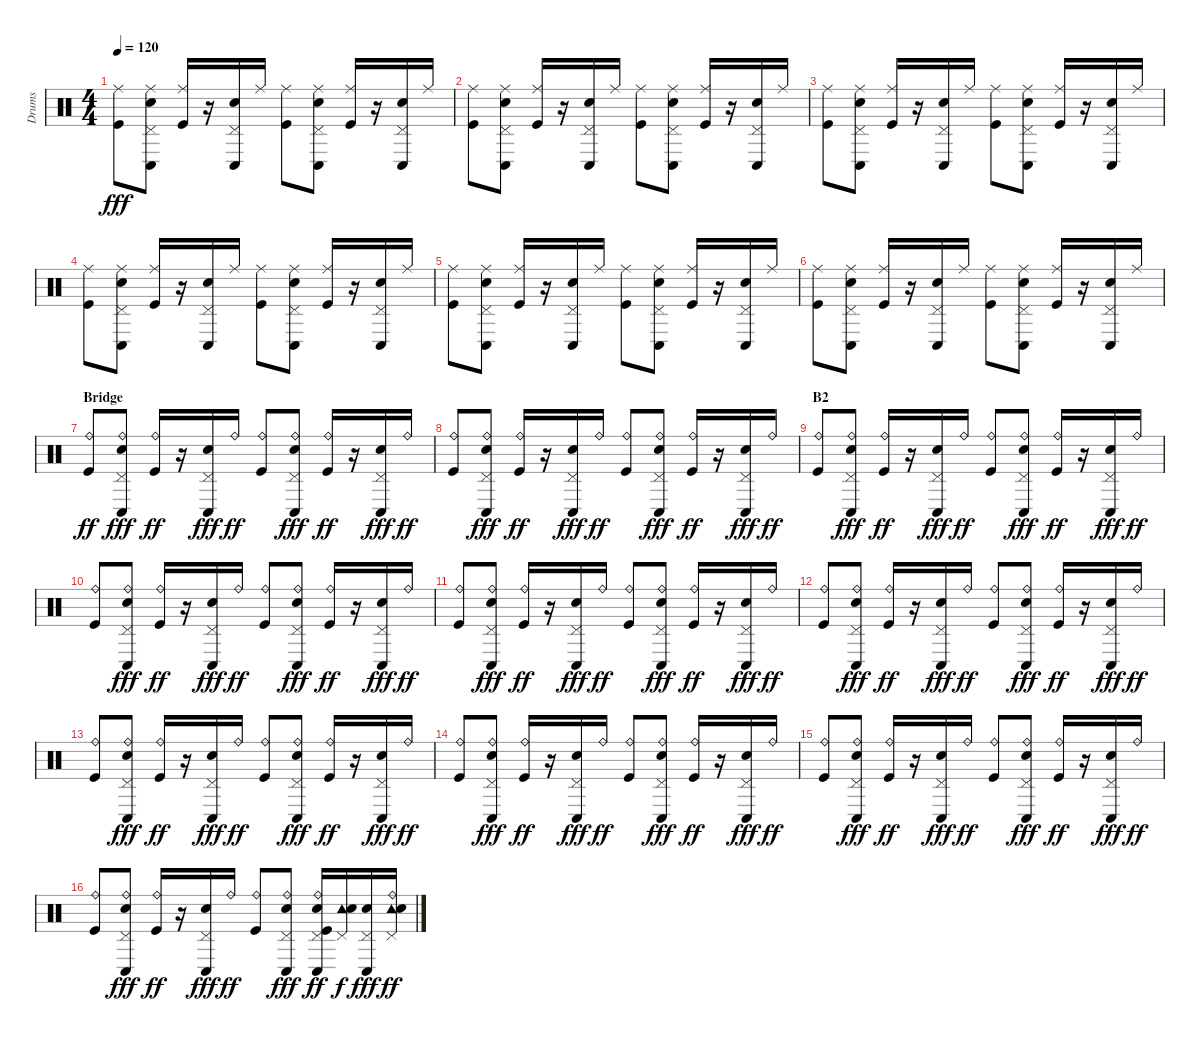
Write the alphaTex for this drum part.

\track ("Drums" "Drums") {instrument percussion}
\staff {score}
\articulation defaults
\ts (4 4)
\tempo 120
\clef neutral
\ks c
("Ride (middle)" "Kick (hit)").8{dy fff} ("Ride (middle)" "Pedal Hi-Hat (hit)" "Conga low (hit)" "Electric Snare (hit)").8 ("Ride (middle)" "Kick (hit)").16 r.16 ("Pedal Hi-Hat (hit)" "Conga low (hit)" "Electric Snare (hit)").16 "Ride (middle)".16 ("Ride (middle)" "Kick (hit)").8 ("Ride (middle)" "Pedal Hi-Hat (hit)" "Conga low (hit)" "Electric Snare (hit)").8 ("Ride (middle)" "Kick (hit)").16 r.16 ("Pedal Hi-Hat (hit)" "Conga low (hit)" "Electric Snare (hit)").16 "Ride (middle)".16 |
("Ride (middle)" "Kick (hit)").8 ("Ride (middle)" "Pedal Hi-Hat (hit)" "Conga low (hit)" "Electric Snare (hit)").8 ("Ride (middle)" "Kick (hit)").16 r.16 ("Pedal Hi-Hat (hit)" "Conga low (hit)" "Electric Snare (hit)").16 "Ride (middle)".16 ("Ride (middle)" "Kick (hit)").8 ("Ride (middle)" "Pedal Hi-Hat (hit)" "Conga low (hit)" "Electric Snare (hit)").8 ("Ride (middle)" "Kick (hit)").16 r.16 ("Pedal Hi-Hat (hit)" "Conga low (hit)" "Electric Snare (hit)").16 "Ride (middle)".16 |
("Ride (middle)" "Kick (hit)").8 ("Ride (middle)" "Pedal Hi-Hat (hit)" "Conga low (hit)" "Electric Snare (hit)").8 ("Ride (middle)" "Kick (hit)").16 r.16 ("Pedal Hi-Hat (hit)" "Conga low (hit)" "Electric Snare (hit)").16 "Ride (middle)".16 ("Ride (middle)" "Kick (hit)").8 ("Ride (middle)" "Pedal Hi-Hat (hit)" "Conga low (hit)" "Electric Snare (hit)").8 ("Ride (middle)" "Kick (hit)").16 r.16 ("Pedal Hi-Hat (hit)" "Conga low (hit)" "Electric Snare (hit)").16 "Ride (middle)".16 |
("Ride (middle)" "Kick (hit)").8 ("Ride (middle)" "Pedal Hi-Hat (hit)" "Conga low (hit)" "Electric Snare (hit)").8 ("Ride (middle)" "Kick (hit)").16 r.16 ("Pedal Hi-Hat (hit)" "Conga low (hit)" "Electric Snare (hit)").16 "Ride (middle)".16 ("Ride (middle)" "Kick (hit)").8 ("Ride (middle)" "Pedal Hi-Hat (hit)" "Conga low (hit)" "Electric Snare (hit)").8 ("Ride (middle)" "Kick (hit)").16 r.16 ("Pedal Hi-Hat (hit)" "Conga low (hit)" "Electric Snare (hit)").16 "Ride (middle)".16 |
("Ride (middle)" "Kick (hit)").8 ("Ride (middle)" "Pedal Hi-Hat (hit)" "Conga low (hit)" "Electric Snare (hit)").8 ("Ride (middle)" "Kick (hit)").16 r.16 ("Pedal Hi-Hat (hit)" "Conga low (hit)" "Electric Snare (hit)").16 "Ride (middle)".16 ("Ride (middle)" "Kick (hit)").8 ("Ride (middle)" "Pedal Hi-Hat (hit)" "Conga low (hit)" "Electric Snare (hit)").8 ("Ride (middle)" "Kick (hit)").16 r.16 ("Pedal Hi-Hat (hit)" "Conga low (hit)" "Electric Snare (hit)").16 "Ride (middle)".16 |
("Ride (middle)" "Kick (hit)").8 ("Ride (middle)" "Pedal Hi-Hat (hit)" "Conga low (hit)" "Electric Snare (hit)").8 ("Ride (middle)" "Kick (hit)").16 r.16 ("Pedal Hi-Hat (hit)" "Conga low (hit)" "Electric Snare (hit)").16 "Ride (middle)".16 ("Ride (middle)" "Kick (hit)").8 ("Ride (middle)" "Pedal Hi-Hat (hit)" "Conga low (hit)" "Electric Snare (hit)").8 ("Ride (middle)" "Kick (hit)").16 r.16 ("Pedal Hi-Hat (hit)" "Conga low (hit)" "Electric Snare (hit)").16 "Ride (middle)".16 |
\section ("" "Bridge")
("Ride (bell)" "Kick (hit)").8{dy ff} ("Ride (bell)" "Pedal Hi-Hat (hit)" "Conga low (hit)" "Electric Snare (hit)").8{dy fff} ("Ride (bell)" "Kick (hit)").16{dy ff} r.16 ("Pedal Hi-Hat (hit)" "Conga low (hit)" "Electric Snare (hit)").16{dy fff} "Ride (bell)".16{dy ff} ("Ride (bell)" "Kick (hit)").8 ("Ride (bell)" "Pedal Hi-Hat (hit)" "Conga low (hit)" "Electric Snare (hit)").8{dy fff} ("Ride (bell)" "Kick (hit)").16{dy ff} r.16 ("Pedal Hi-Hat (hit)" "Conga low (hit)" "Electric Snare (hit)").16{dy fff} "Ride (bell)".16{dy ff} |
("Ride (bell)" "Kick (hit)").8 ("Ride (bell)" "Pedal Hi-Hat (hit)" "Conga low (hit)" "Electric Snare (hit)").8{dy fff} ("Ride (bell)" "Kick (hit)").16{dy ff} r.16 ("Pedal Hi-Hat (hit)" "Conga low (hit)" "Electric Snare (hit)").16{dy fff} "Ride (bell)".16{dy ff} ("Ride (bell)" "Kick (hit)").8 ("Ride (bell)" "Pedal Hi-Hat (hit)" "Conga low (hit)" "Electric Snare (hit)").8{dy fff} ("Ride (bell)" "Kick (hit)").16{dy ff} r.16 ("Pedal Hi-Hat (hit)" "Conga low (hit)" "Electric Snare (hit)").16{dy fff} "Ride (bell)".16{dy ff} |
\section ("" "B2")
("Ride (bell)" "Kick (hit)").8 ("Ride (bell)" "Pedal Hi-Hat (hit)" "Conga low (hit)" "Electric Snare (hit)").8{dy fff} ("Ride (bell)" "Kick (hit)").16{dy ff} r.16 ("Pedal Hi-Hat (hit)" "Conga low (hit)" "Electric Snare (hit)").16{dy fff} "Ride (bell)".16{dy ff} ("Ride (bell)" "Kick (hit)").8 ("Ride (bell)" "Pedal Hi-Hat (hit)" "Conga low (hit)" "Electric Snare (hit)").8{dy fff} ("Ride (bell)" "Kick (hit)").16{dy ff} r.16 ("Pedal Hi-Hat (hit)" "Conga low (hit)" "Electric Snare (hit)").16{dy fff} "Ride (bell)".16{dy ff} |
("Ride (bell)" "Kick (hit)").8 ("Ride (bell)" "Pedal Hi-Hat (hit)" "Conga low (hit)" "Electric Snare (hit)").8{dy fff} ("Ride (bell)" "Kick (hit)").16{dy ff} r.16 ("Pedal Hi-Hat (hit)" "Conga low (hit)" "Electric Snare (hit)").16{dy fff} "Ride (bell)".16{dy ff} ("Ride (bell)" "Kick (hit)").8 ("Ride (bell)" "Pedal Hi-Hat (hit)" "Conga low (hit)" "Electric Snare (hit)").8{dy fff} ("Ride (bell)" "Kick (hit)").16{dy ff} r.16 ("Pedal Hi-Hat (hit)" "Conga low (hit)" "Electric Snare (hit)").16{dy fff} "Ride (bell)".16{dy ff} |
("Ride (bell)" "Kick (hit)").8 ("Ride (bell)" "Pedal Hi-Hat (hit)" "Conga low (hit)" "Electric Snare (hit)").8{dy fff} ("Ride (bell)" "Kick (hit)").16{dy ff} r.16 ("Pedal Hi-Hat (hit)" "Conga low (hit)" "Electric Snare (hit)").16{dy fff} "Ride (bell)".16{dy ff} ("Ride (bell)" "Kick (hit)").8 ("Ride (bell)" "Pedal Hi-Hat (hit)" "Conga low (hit)" "Electric Snare (hit)").8{dy fff} ("Ride (bell)" "Kick (hit)").16{dy ff} r.16 ("Pedal Hi-Hat (hit)" "Conga low (hit)" "Electric Snare (hit)").16{dy fff} "Ride (bell)".16{dy ff} |
("Ride (bell)" "Kick (hit)").8 ("Ride (bell)" "Pedal Hi-Hat (hit)" "Conga low (hit)" "Electric Snare (hit)").8{dy fff} ("Ride (bell)" "Kick (hit)").16{dy ff} r.16 ("Pedal Hi-Hat (hit)" "Conga low (hit)" "Electric Snare (hit)").16{dy fff} "Ride (bell)".16{dy ff} ("Ride (bell)" "Kick (hit)").8 ("Ride (bell)" "Pedal Hi-Hat (hit)" "Conga low (hit)" "Electric Snare (hit)").8{dy fff} ("Ride (bell)" "Kick (hit)").16{dy ff} r.16 ("Pedal Hi-Hat (hit)" "Conga low (hit)" "Electric Snare (hit)").16{dy fff} "Ride (bell)".16{dy ff} |
("Ride (bell)" "Kick (hit)").8 ("Ride (bell)" "Pedal Hi-Hat (hit)" "Conga low (hit)" "Electric Snare (hit)").8{dy fff} ("Ride (bell)" "Kick (hit)").16{dy ff} r.16 ("Pedal Hi-Hat (hit)" "Conga low (hit)" "Electric Snare (hit)").16{dy fff} "Ride (bell)".16{dy ff} ("Ride (bell)" "Kick (hit)").8 ("Ride (bell)" "Pedal Hi-Hat (hit)" "Conga low (hit)" "Electric Snare (hit)").8{dy fff} ("Ride (bell)" "Kick (hit)").16{dy ff} r.16 ("Pedal Hi-Hat (hit)" "Conga low (hit)" "Electric Snare (hit)").16{dy fff} "Ride (bell)".16{dy ff} |
("Ride (bell)" "Kick (hit)").8 ("Ride (bell)" "Pedal Hi-Hat (hit)" "Conga low (hit)" "Electric Snare (hit)").8{dy fff} ("Ride (bell)" "Kick (hit)").16{dy ff} r.16 ("Pedal Hi-Hat (hit)" "Conga low (hit)" "Electric Snare (hit)").16{dy fff} "Ride (bell)".16{dy ff} ("Ride (bell)" "Kick (hit)").8 ("Ride (bell)" "Pedal Hi-Hat (hit)" "Conga low (hit)" "Electric Snare (hit)").8{dy fff} ("Ride (bell)" "Kick (hit)").16{dy ff} r.16 ("Pedal Hi-Hat (hit)" "Conga low (hit)" "Electric Snare (hit)").16{dy fff} "Ride (bell)".16{dy ff} |
("Ride (bell)" "Kick (hit)").8 ("Ride (bell)" "Pedal Hi-Hat (hit)" "Conga low (hit)" "Electric Snare (hit)").8{dy fff} ("Ride (bell)" "Kick (hit)").16{dy ff} r.16 ("Pedal Hi-Hat (hit)" "Conga low (hit)" "Electric Snare (hit)").16{dy fff} "Ride (bell)".16{dy ff} ("Ride (bell)" "Kick (hit)").8 ("Ride (bell)" "Pedal Hi-Hat (hit)" "Conga low (hit)" "Electric Snare (hit)").8{dy fff} ("Ride (bell)" "Kick (hit)").16{dy ff} r.16 ("Pedal Hi-Hat (hit)" "Conga low (hit)" "Electric Snare (hit)").16{dy fff} "Ride (bell)".16{dy ff} |
("Ride (bell)" "Kick (hit)").8 ("Ride (bell)" "Pedal Hi-Hat (hit)" "Conga low (hit)" "Electric Snare (hit)").8{dy fff} ("Ride (bell)" "Kick (hit)").16{dy ff} r.16 ("Pedal Hi-Hat (hit)" "Conga low (hit)" "Electric Snare (hit)").16{dy fff} "Ride (bell)".16{dy ff} ("Ride (bell)" "Kick (hit)").8 ("Ride (bell)" "Pedal Hi-Hat (hit)" "Conga low (hit)" "Electric Snare (hit)").8{dy fff} ("Ride (bell)" "Pedal Hi-Hat (hit)" "Conga low (hit)" "Electric Snare (hit)" "Kick (hit)").16{dy ff} ("Pedal Hi-Hat (hit)" "Tambourine (hit)" "Electric Snare (hit)").16{dy f} ("Pedal Hi-Hat (hit)" "Conga low (hit)" "Electric Snare (hit)").16{dy fff} ("Ride (bell)" "Pedal Hi-Hat (hit)" "Tambourine (hit)" "Electric Snare (hit)").16{dy ff}
